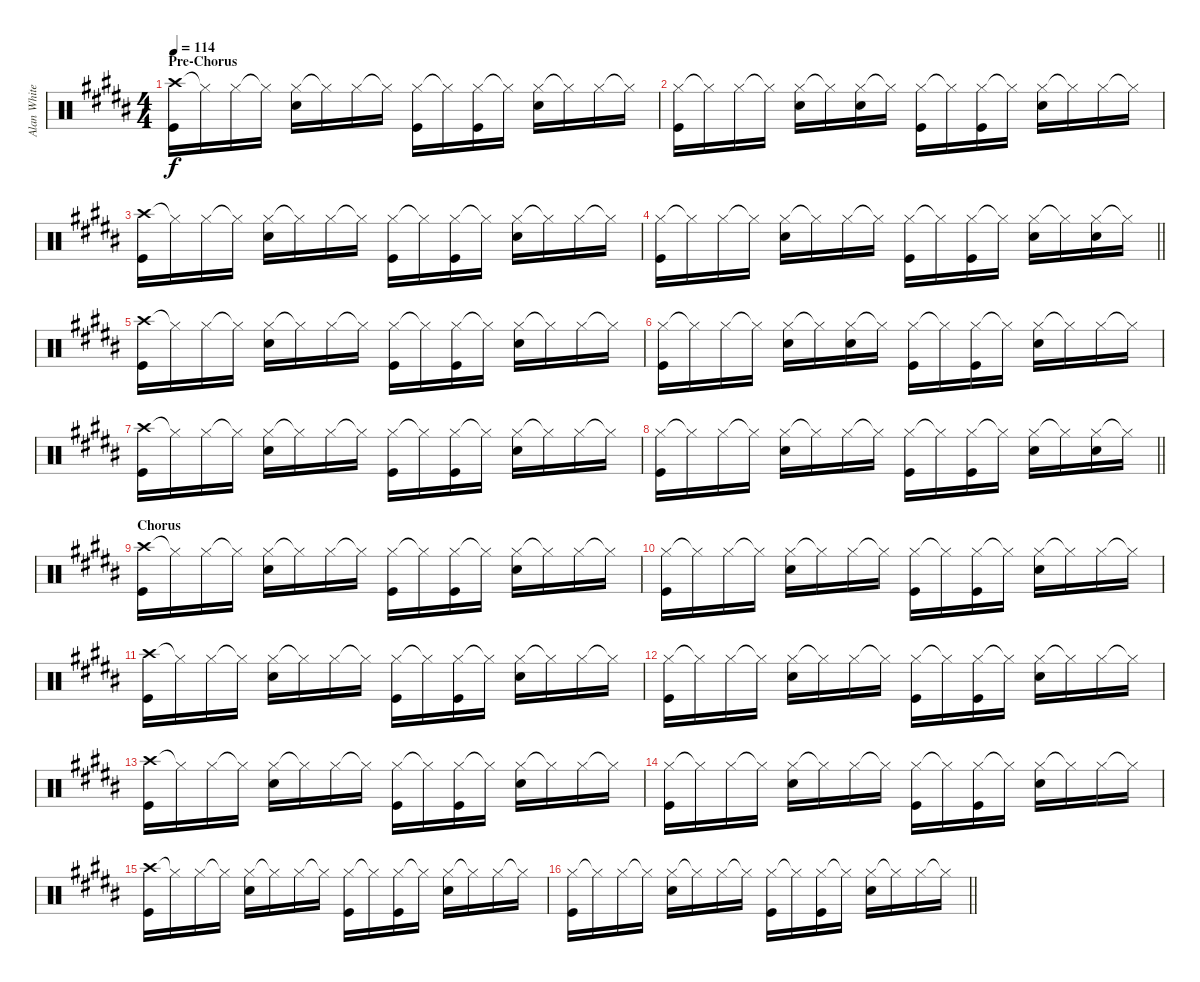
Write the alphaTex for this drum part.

\track ("Alan White" "Alan White") {instrument percussion}
\staff {score}
\articulation defaults
\ts (4 4)
\section ("" "Pre-Chorus")
\tempo 114
\clef neutral
\ks b
("Crash high (hit)" "Kick (hit)").16{dy f} "Hi-Hat (closed)"{t}.16 "Hi-Hat (closed)".16 "Hi-Hat (closed)"{t}.16 ("Hi-Hat (closed)" "Snare (hit) 2").16 "Hi-Hat (closed)"{t}.16 "Hi-Hat (closed)".16 "Hi-Hat (closed)"{t}.16 ("Hi-Hat (closed)" "Kick (hit)").16 "Hi-Hat (closed)"{t}.16 ("Hi-Hat (closed)" "Kick (hit)").16 "Hi-Hat (closed)"{t}.16 ("Hi-Hat (closed)" "Snare (hit) 2").16 "Hi-Hat (closed)"{t}.16 "Hi-Hat (closed)".16 "Hi-Hat (closed)"{t}.16 |
("Hi-Hat (closed)" "Kick (hit)").16 "Hi-Hat (closed)"{t}.16 "Hi-Hat (closed)".16 "Hi-Hat (closed)"{t}.16 ("Hi-Hat (closed)" "Snare (hit) 2").16 "Hi-Hat (closed)"{t}.16 ("Hi-Hat (closed)" "Snare (hit) 2").16 "Hi-Hat (closed)"{t}.16 ("Hi-Hat (closed)" "Kick (hit)").16 "Hi-Hat (closed)"{t}.16 ("Hi-Hat (closed)" "Kick (hit)").16 "Hi-Hat (closed)"{t}.16 ("Hi-Hat (closed)" "Snare (hit) 2").16 "Hi-Hat (closed)"{t}.16 "Hi-Hat (closed)".16 "Hi-Hat (closed)"{t}.16 |
("Crash high (hit)" "Kick (hit)").16 "Hi-Hat (closed)"{t}.16 "Hi-Hat (closed)".16 "Hi-Hat (closed)"{t}.16 ("Hi-Hat (closed)" "Snare (hit) 2").16 "Hi-Hat (closed)"{t}.16 "Hi-Hat (closed)".16 "Hi-Hat (closed)"{t}.16 ("Hi-Hat (closed)" "Kick (hit)").16 "Hi-Hat (closed)"{t}.16 ("Hi-Hat (closed)" "Kick (hit)").16 "Hi-Hat (closed)"{t}.16 ("Hi-Hat (closed)" "Snare (hit) 2").16 "Hi-Hat (closed)"{t}.16 "Hi-Hat (closed)".16 "Hi-Hat (closed)"{t}.16 |
\barLineRight lightlight
("Hi-Hat (closed)" "Kick (hit)").16 "Hi-Hat (closed)"{t}.16 "Hi-Hat (closed)".16 "Hi-Hat (closed)"{t}.16 ("Hi-Hat (closed)" "Snare (hit) 2").16 "Hi-Hat (closed)"{t}.16 "Hi-Hat (closed)".16 "Hi-Hat (closed)"{t}.16 ("Hi-Hat (closed)" "Kick (hit)").16 "Hi-Hat (closed)"{t}.16 ("Hi-Hat (closed)" "Kick (hit)").16 "Hi-Hat (closed)"{t}.16 ("Hi-Hat (closed)" "Snare (hit) 2").16 "Hi-Hat (closed)"{t}.16 ("Hi-Hat (closed)" "Snare (hit) 2").16 "Hi-Hat (closed)"{t}.16 |
("Crash high (hit)" "Kick (hit)").16 "Hi-Hat (closed)"{t}.16 "Hi-Hat (closed)".16 "Hi-Hat (closed)"{t}.16 ("Hi-Hat (closed)" "Snare (hit) 2").16 "Hi-Hat (closed)"{t}.16 "Hi-Hat (closed)".16 "Hi-Hat (closed)"{t}.16 ("Hi-Hat (closed)" "Kick (hit)").16 "Hi-Hat (closed)"{t}.16 ("Hi-Hat (closed)" "Kick (hit)").16 "Hi-Hat (closed)"{t}.16 ("Hi-Hat (closed)" "Snare (hit) 2").16 "Hi-Hat (closed)"{t}.16 "Hi-Hat (closed)".16 "Hi-Hat (closed)"{t}.16 |
("Hi-Hat (closed)" "Kick (hit)").16 "Hi-Hat (closed)"{t}.16 "Hi-Hat (closed)".16 "Hi-Hat (closed)"{t}.16 ("Hi-Hat (closed)" "Snare (hit) 2").16 "Hi-Hat (closed)"{t}.16 ("Hi-Hat (closed)" "Snare (hit) 2").16 "Hi-Hat (closed)"{t}.16 ("Hi-Hat (closed)" "Kick (hit)").16 "Hi-Hat (closed)"{t}.16 ("Hi-Hat (closed)" "Kick (hit)").16 "Hi-Hat (closed)"{t}.16 ("Hi-Hat (closed)" "Snare (hit) 2").16 "Hi-Hat (closed)"{t}.16 "Hi-Hat (closed)".16 "Hi-Hat (closed)"{t}.16 |
("Crash high (hit)" "Kick (hit)").16 "Hi-Hat (closed)"{t}.16 "Hi-Hat (closed)".16 "Hi-Hat (closed)"{t}.16 ("Hi-Hat (closed)" "Snare (hit) 2").16 "Hi-Hat (closed)"{t}.16 "Hi-Hat (closed)".16 "Hi-Hat (closed)"{t}.16 ("Hi-Hat (closed)" "Kick (hit)").16 "Hi-Hat (closed)"{t}.16 ("Hi-Hat (closed)" "Kick (hit)").16 "Hi-Hat (closed)"{t}.16 ("Hi-Hat (closed)" "Snare (hit) 2").16 "Hi-Hat (closed)"{t}.16 "Hi-Hat (closed)".16 "Hi-Hat (closed)"{t}.16 |
\barLineRight lightlight
("Hi-Hat (closed)" "Kick (hit)").16 "Hi-Hat (closed)"{t}.16 "Hi-Hat (closed)".16 "Hi-Hat (closed)"{t}.16 ("Hi-Hat (closed)" "Snare (hit) 2").16 "Hi-Hat (closed)"{t}.16 "Hi-Hat (closed)".16 "Hi-Hat (closed)"{t}.16 ("Hi-Hat (closed)" "Kick (hit)").16 "Hi-Hat (closed)"{t}.16 ("Hi-Hat (closed)" "Kick (hit)").16 "Hi-Hat (closed)"{t}.16 ("Hi-Hat (closed)" "Snare (hit) 2").16 "Hi-Hat (closed)"{t}.16 ("Hi-Hat (closed)" "Snare (hit) 2").16 "Hi-Hat (closed)"{t}.16 |
\section ("" "Chorus")
("Crash high (hit)" "Kick (hit)").16 "Hi-Hat (closed)"{t}.16 "Hi-Hat (closed)".16 "Hi-Hat (closed)"{t}.16 ("Hi-Hat (closed)" "Snare (hit) 2").16 "Hi-Hat (closed)"{t}.16 "Hi-Hat (closed)".16 "Hi-Hat (closed)"{t}.16 ("Hi-Hat (closed)" "Kick (hit)").16 "Hi-Hat (closed)"{t}.16 ("Hi-Hat (closed)" "Kick (hit)").16 "Hi-Hat (closed)"{t}.16 ("Hi-Hat (closed)" "Snare (hit) 2").16 "Hi-Hat (closed)"{t}.16 "Hi-Hat (closed)".16 "Hi-Hat (closed)"{t}.16 |
("Hi-Hat (closed)" "Kick (hit)").16 "Hi-Hat (closed)"{t}.16 "Hi-Hat (closed)".16 "Hi-Hat (closed)"{t}.16 ("Hi-Hat (closed)" "Snare (hit) 2").16 "Hi-Hat (closed)"{t}.16 "Hi-Hat (closed)".16 "Hi-Hat (closed)"{t}.16 ("Hi-Hat (closed)" "Kick (hit)").16 "Hi-Hat (closed)"{t}.16 ("Hi-Hat (closed)" "Kick (hit)").16 "Hi-Hat (closed)"{t}.16 ("Hi-Hat (closed)" "Snare (hit) 2").16 "Hi-Hat (closed)"{t}.16 "Hi-Hat (closed)".16 "Hi-Hat (closed)"{t}.16 |
("Crash high (hit)" "Kick (hit)").16 "Hi-Hat (closed)"{t}.16 "Hi-Hat (closed)".16 "Hi-Hat (closed)"{t}.16 ("Hi-Hat (closed)" "Snare (hit) 2").16 "Hi-Hat (closed)"{t}.16 "Hi-Hat (closed)".16 "Hi-Hat (closed)"{t}.16 ("Hi-Hat (closed)" "Kick (hit)").16 "Hi-Hat (closed)"{t}.16 ("Hi-Hat (closed)" "Kick (hit)").16 "Hi-Hat (closed)"{t}.16 ("Hi-Hat (closed)" "Snare (hit) 2").16 "Hi-Hat (closed)"{t}.16 "Hi-Hat (closed)".16 "Hi-Hat (closed)"{t}.16 |
("Hi-Hat (closed)" "Kick (hit)").16 "Hi-Hat (closed)"{t}.16 "Hi-Hat (closed)".16 "Hi-Hat (closed)"{t}.16 ("Hi-Hat (closed)" "Snare (hit) 2").16 "Hi-Hat (closed)"{t}.16 "Hi-Hat (closed)".16 "Hi-Hat (closed)"{t}.16 ("Hi-Hat (closed)" "Kick (hit)").16 "Hi-Hat (closed)"{t}.16 ("Hi-Hat (closed)" "Kick (hit)").16 "Hi-Hat (closed)"{t}.16 ("Hi-Hat (closed)" "Snare (hit) 2").16 "Hi-Hat (closed)"{t}.16 "Hi-Hat (closed)".16 "Hi-Hat (closed)"{t}.16 |
("Crash high (hit)" "Kick (hit)").16 "Hi-Hat (closed)"{t}.16 "Hi-Hat (closed)".16 "Hi-Hat (closed)"{t}.16 ("Hi-Hat (closed)" "Snare (hit) 2").16 "Hi-Hat (closed)"{t}.16 "Hi-Hat (closed)".16 "Hi-Hat (closed)"{t}.16 ("Hi-Hat (closed)" "Kick (hit)").16 "Hi-Hat (closed)"{t}.16 ("Hi-Hat (closed)" "Kick (hit)").16 "Hi-Hat (closed)"{t}.16 ("Hi-Hat (closed)" "Snare (hit) 2").16 "Hi-Hat (closed)"{t}.16 "Hi-Hat (closed)".16 "Hi-Hat (closed)"{t}.16 |
("Hi-Hat (closed)" "Kick (hit)").16 "Hi-Hat (closed)"{t}.16 "Hi-Hat (closed)".16 "Hi-Hat (closed)"{t}.16 ("Hi-Hat (closed)" "Snare (hit) 2").16 "Hi-Hat (closed)"{t}.16 "Hi-Hat (closed)".16 "Hi-Hat (closed)"{t}.16 ("Hi-Hat (closed)" "Kick (hit)").16 "Hi-Hat (closed)"{t}.16 ("Hi-Hat (closed)" "Kick (hit)").16 "Hi-Hat (closed)"{t}.16 ("Hi-Hat (closed)" "Snare (hit) 2").16 "Hi-Hat (closed)"{t}.16 "Hi-Hat (closed)".16 "Hi-Hat (closed)"{t}.16 |
("Crash high (hit)" "Kick (hit)").16 "Hi-Hat (closed)"{t}.16 "Hi-Hat (closed)".16 "Hi-Hat (closed)"{t}.16 ("Hi-Hat (closed)" "Snare (hit) 2").16 "Hi-Hat (closed)"{t}.16 "Hi-Hat (closed)".16 "Hi-Hat (closed)"{t}.16 ("Hi-Hat (closed)" "Kick (hit)").16 "Hi-Hat (closed)"{t}.16 ("Hi-Hat (closed)" "Kick (hit)").16 "Hi-Hat (closed)"{t}.16 ("Hi-Hat (closed)" "Snare (hit) 2").16 "Hi-Hat (closed)"{t}.16 "Hi-Hat (closed)".16 "Hi-Hat (closed)"{t}.16 |
\barLineRight lightlight
("Hi-Hat (closed)" "Kick (hit)").16 "Hi-Hat (closed)"{t}.16 "Hi-Hat (closed)".16 "Hi-Hat (closed)"{t}.16 ("Hi-Hat (closed)" "Snare (hit) 2").16 "Hi-Hat (closed)"{t}.16 "Hi-Hat (closed)".16 "Hi-Hat (closed)"{t}.16 ("Hi-Hat (closed)" "Kick (hit)").16 "Hi-Hat (closed)"{t}.16 ("Hi-Hat (closed)" "Kick (hit)").16 "Hi-Hat (closed)"{t}.16 ("Hi-Hat (closed)" "Snare (hit) 2").16 "Hi-Hat (closed)"{t}.16 "Hi-Hat (closed)".16 "Hi-Hat (closed)"{t}.16
